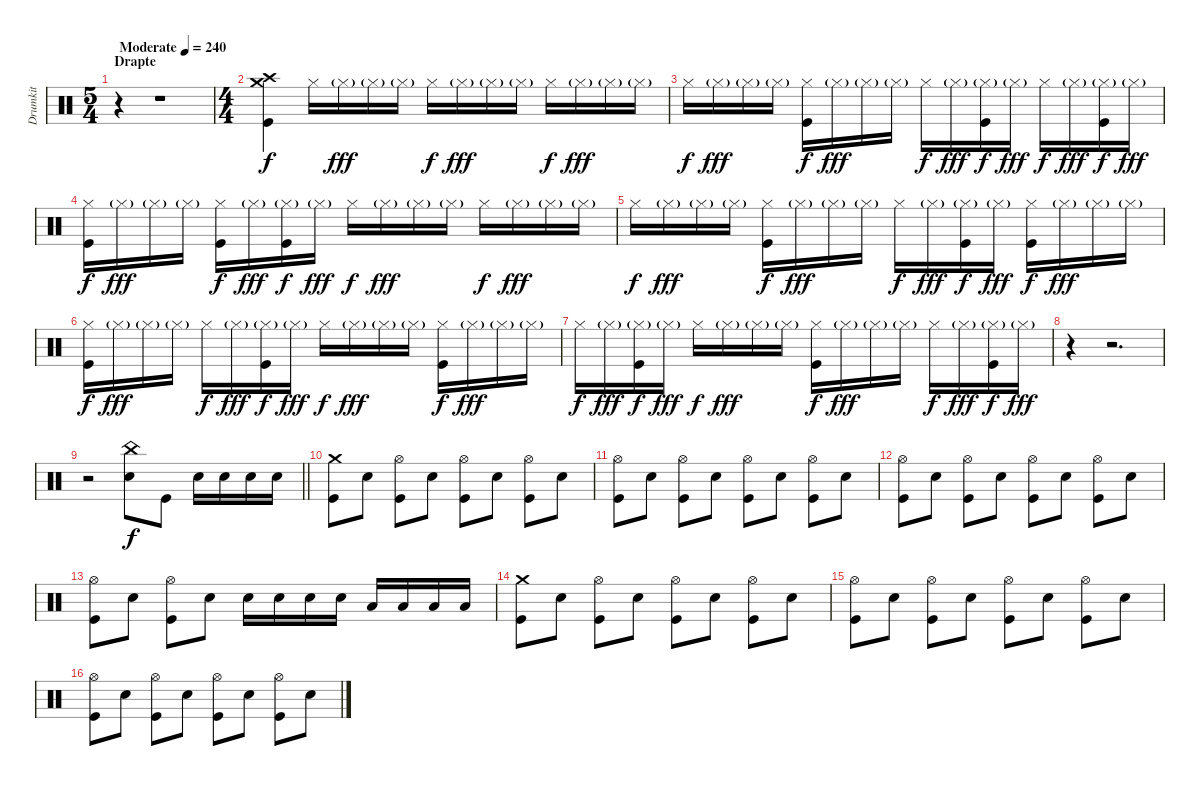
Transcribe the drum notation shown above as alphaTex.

\track ("Drumkit" "Drumkit") {instrument percussion}
\staff {score}
\articulation defaults
\ts (5 4)
\section ("" "Drapte")
\tempo (240 "Moderate")
\clef neutral
\ks c
r.4{dy f} r.1 |
\ts (4 4)
("Crash medium (hit)" "Crash high (hit)" "Kick (hit)").4 "Hi-Hat (closed)".16 "Hi-Hat (closed)"{g}.16{dy fff} "Hi-Hat (closed)"{g}.16 "Hi-Hat (closed)"{g}.16 "Hi-Hat (closed)".16{dy f} "Hi-Hat (closed)"{g}.16{dy fff} "Hi-Hat (closed)"{g}.16 "Hi-Hat (closed)"{g}.16 "Hi-Hat (closed)".16{dy f} "Hi-Hat (closed)"{g}.16{dy fff} "Hi-Hat (closed)"{g}.16 "Hi-Hat (closed)"{g}.16 |
"Hi-Hat (closed)".16{dy f} "Hi-Hat (closed)"{g}.16{dy fff} "Hi-Hat (closed)"{g}.16 "Hi-Hat (closed)"{g}.16 ("Hi-Hat (closed)" "Kick (hit)").16{dy f} "Hi-Hat (closed)"{g}.16{dy fff} "Hi-Hat (closed)"{g}.16 "Hi-Hat (closed)"{g}.16 "Hi-Hat (closed)".16{dy f} "Hi-Hat (closed)"{g}.16{dy fff} ("Hi-Hat (closed)"{g} "Kick (hit)").16{dy f} "Hi-Hat (closed)"{g}.16{dy fff} "Hi-Hat (closed)".16{dy f} "Hi-Hat (closed)"{g}.16{dy fff} ("Hi-Hat (closed)"{g} "Kick (hit)").16{dy f} "Hi-Hat (closed)"{g}.16{dy fff} |
("Hi-Hat (closed)" "Kick (hit)").16{dy f} "Hi-Hat (closed)"{g}.16{dy fff} "Hi-Hat (closed)"{g}.16 "Hi-Hat (closed)"{g}.16 ("Hi-Hat (closed)" "Kick (hit)").16{dy f} "Hi-Hat (closed)"{g}.16{dy fff} ("Hi-Hat (closed)"{g} "Kick (hit)").16{dy f} "Hi-Hat (closed)"{g}.16{dy fff} "Hi-Hat (closed)".16{dy f} "Hi-Hat (closed)"{g}.16{dy fff} "Hi-Hat (closed)"{g}.16 "Hi-Hat (closed)"{g}.16 "Hi-Hat (closed)".16{dy f} "Hi-Hat (closed)"{g}.16{dy fff} "Hi-Hat (closed)"{g}.16 "Hi-Hat (closed)"{g}.16 |
"Hi-Hat (closed)".16{dy f} "Hi-Hat (closed)"{g}.16{dy fff} "Hi-Hat (closed)"{g}.16 "Hi-Hat (closed)"{g}.16 ("Hi-Hat (closed)" "Kick (hit)").16{dy f} "Hi-Hat (closed)"{g}.16{dy fff} "Hi-Hat (closed)"{g}.16 "Hi-Hat (closed)"{g}.16 "Hi-Hat (closed)".16{dy f} "Hi-Hat (closed)"{g}.16{dy fff} ("Hi-Hat (closed)"{g} "Kick (hit)").16{dy f} "Hi-Hat (closed)"{g}.16{dy fff} ("Hi-Hat (closed)" "Kick (hit)").16{dy f} "Hi-Hat (closed)"{g}.16{dy fff} "Hi-Hat (closed)"{g}.16 "Hi-Hat (closed)"{g}.16 |
("Hi-Hat (closed)" "Kick (hit)").16{dy f} "Hi-Hat (closed)"{g}.16{dy fff} "Hi-Hat (closed)"{g}.16 "Hi-Hat (closed)"{g}.16 "Hi-Hat (closed)".16{dy f} "Hi-Hat (closed)"{g}.16{dy fff} ("Hi-Hat (closed)"{g} "Kick (hit)").16{dy f} "Hi-Hat (closed)"{g}.16{dy fff} "Hi-Hat (closed)".16{dy f} "Hi-Hat (closed)"{g}.16{dy fff} "Hi-Hat (closed)"{g}.16 "Hi-Hat (closed)"{g}.16 ("Hi-Hat (closed)" "Kick (hit)").16{dy f} "Hi-Hat (closed)"{g}.16{dy fff} "Hi-Hat (closed)"{g}.16 "Hi-Hat (closed)"{g}.16 |
"Hi-Hat (closed)".16{dy f} "Hi-Hat (closed)"{g}.16{dy fff} ("Hi-Hat (closed)"{g} "Kick (hit)").16{dy f} "Hi-Hat (closed)"{g}.16{dy fff} "Hi-Hat (closed)".16{dy f} "Hi-Hat (closed)"{g}.16{dy fff} "Hi-Hat (closed)"{g}.16 "Hi-Hat (closed)"{g}.16 ("Hi-Hat (closed)" "Kick (hit)").16{dy f} "Hi-Hat (closed)"{g}.16{dy fff} "Hi-Hat (closed)"{g}.16 "Hi-Hat (closed)"{g}.16 "Hi-Hat (closed)".16{dy f} "Hi-Hat (closed)"{g}.16{dy fff} ("Hi-Hat (closed)"{g} "Kick (hit)").16{dy f} "Hi-Hat (closed)"{g}.16{dy fff} |
r.4 r.2{d} |
\barLineRight lightlight
r.2 ("China (hit)" "Snare (hit) 2").8{dy f} "Kick (hit)".8 "Snare (hit) 2".16 "Snare (hit) 2".16 "Snare (hit) 2".16 "Snare (hit) 2".16 |
\section ("" "")
("Crash medium (hit)" "Kick (hit)").8 "Snare (hit) 2".8 ("Hi-Hat (open)" "Kick (hit)").8 "Snare (hit) 2".8 ("Hi-Hat (open)" "Kick (hit)").8 "Snare (hit) 2".8 ("Hi-Hat (open)" "Kick (hit)").8 "Snare (hit) 2".8 |
("Hi-Hat (open)" "Kick (hit)").8 "Snare (hit) 2".8 ("Hi-Hat (open)" "Kick (hit)").8 "Snare (hit) 2".8 ("Hi-Hat (open)" "Kick (hit)").8 "Snare (hit) 2".8 ("Hi-Hat (open)" "Kick (hit)").8 "Snare (hit) 2".8 |
("Hi-Hat (open)" "Kick (hit)").8 "Snare (hit) 2".8 ("Hi-Hat (open)" "Kick (hit)").8 "Snare (hit) 2".8 ("Hi-Hat (open)" "Kick (hit)").8 "Snare (hit) 2".8 ("Hi-Hat (open)" "Kick (hit)").8 "Snare (hit) 2".8 |
("Hi-Hat (open)" "Kick (hit)").8 "Snare (hit) 2".8 ("Hi-Hat (open)" "Kick (hit)").8 "Snare (hit) 2".8 "Snare (hit) 2".16 "Snare (hit) 2".16 "Snare (hit) 2".16 "Snare (hit) 2".16 "Low Tom (hit)".16 "Low Tom (hit)".16 "Low Tom (hit)".16 "Low Tom (hit)".16 |
("Crash medium (hit)" "Kick (hit)").8 "Snare (hit) 2".8 ("Hi-Hat (open)" "Kick (hit)").8 "Snare (hit) 2".8 ("Hi-Hat (open)" "Kick (hit)").8 "Snare (hit) 2".8 ("Hi-Hat (open)" "Kick (hit)").8 "Snare (hit) 2".8 |
("Hi-Hat (open)" "Kick (hit)").8 "Snare (hit) 2".8 ("Hi-Hat (open)" "Kick (hit)").8 "Snare (hit) 2".8 ("Hi-Hat (open)" "Kick (hit)").8 "Snare (hit) 2".8 ("Hi-Hat (open)" "Kick (hit)").8 "Snare (hit) 2".8 |
("Hi-Hat (open)" "Kick (hit)").8 "Snare (hit) 2".8 ("Hi-Hat (open)" "Kick (hit)").8 "Snare (hit) 2".8 ("Hi-Hat (open)" "Kick (hit)").8 "Snare (hit) 2".8 ("Hi-Hat (open)" "Kick (hit)").8 "Snare (hit) 2".8
